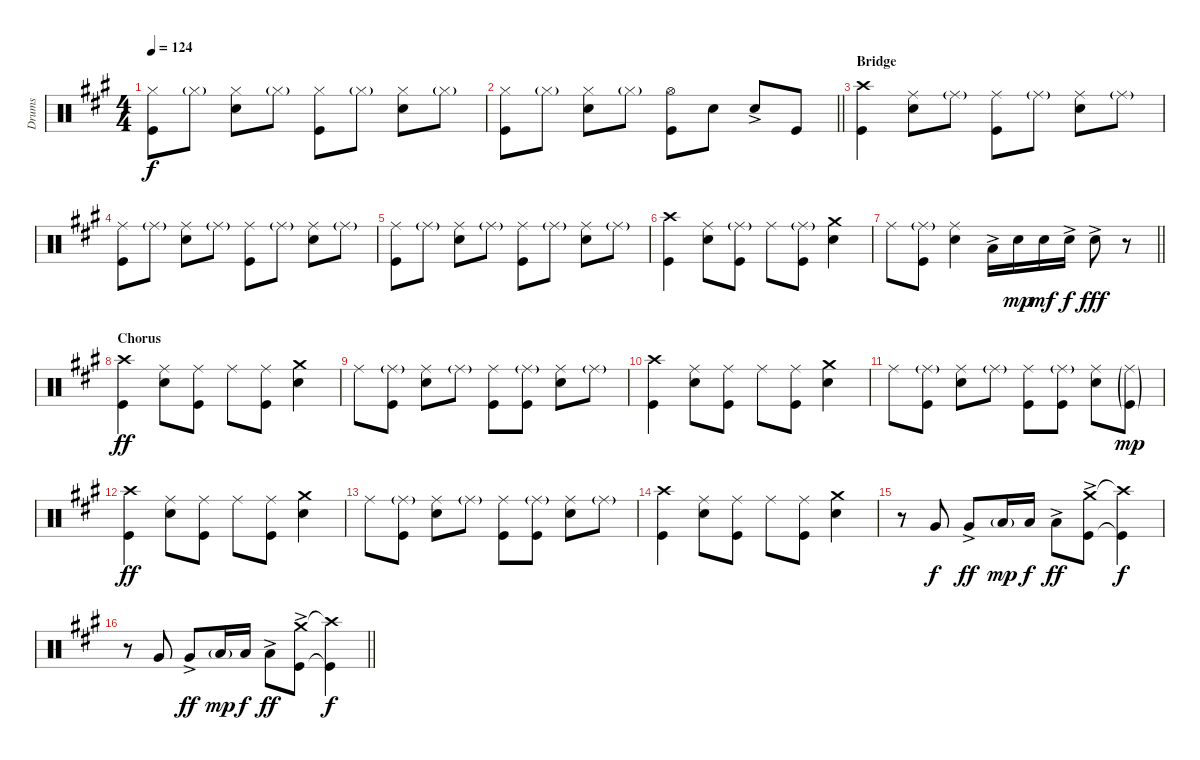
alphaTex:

\track ("Drums" "Drums") {instrument percussion}
\staff {score}
\articulation defaults
\ts (4 4)
\tempo 124
\clef neutral
\ks a
("Kick (hit)" "Hi-Hat (closed)").8{dy f} "Hi-Hat (closed)"{g}.8 ("Snare (hit) 2" "Hi-Hat (closed)").8 "Hi-Hat (closed)"{g}.8 ("Kick (hit)" "Hi-Hat (closed)").8 "Hi-Hat (closed)"{g}.8 ("Snare (hit) 2" "Hi-Hat (closed)").8 "Hi-Hat (closed)"{g}.8 |
\barLineRight lightlight
("Kick (hit)" "Hi-Hat (closed)").8 "Hi-Hat (closed)"{g}.8 ("Snare (hit) 2" "Hi-Hat (closed)").8 "Hi-Hat (closed)"{g}.8 ("Hi-Hat (open)" "Kick (hit)").8 "Snare (hit) 2".8 "Snare (hit) 2"{ac}.8 "Kick (hit)".8 |
\section ("" "Bridge")
("Crash high (hit)" "Kick (hit)").4 ("Ride (middle)" "Snare (hit) 2").8 "Ride (middle)"{g}.8 ("Ride (middle)" "Kick (hit)").8 "Ride (middle)"{g}.8 ("Ride (middle)" "Snare (hit) 2").8 "Ride (middle)"{g}.8 |
("Ride (middle)" "Kick (hit)").8 "Ride (middle)"{g}.8 ("Ride (middle)" "Snare (hit) 2").8 "Ride (middle)"{g}.8 ("Ride (middle)" "Kick (hit)").8 "Ride (middle)"{g}.8 ("Ride (middle)" "Snare (hit) 2").8 "Ride (middle)"{g}.8 |
("Ride (middle)" "Kick (hit)").8 "Ride (middle)"{g}.8 ("Ride (middle)" "Snare (hit) 2").8 "Ride (middle)"{g}.8 ("Ride (middle)" "Kick (hit)").8 "Ride (middle)"{g}.8 ("Ride (middle)" "Snare (hit) 2").8 "Ride (middle)"{g}.8 |
("Kick (hit)" "Crash high (hit)").4 ("Ride (middle)" "Snare (hit) 2").8 ("Ride (middle)"{g} "Kick (hit)").8 "Ride (middle)".8 ("Ride (middle)"{g} "Kick (hit)").8 ("Snare (hit) 2" "Crash medium (hit)").4 |
\barLineRight lightlight "Ride (middle)".8
("Ride (middle)"{g} "Kick (hit)").8 ("Ride (middle)" "Snare (hit) 2").4 "Low Tom (hit)"{ac}.16 "Snare (hit) 2".16{dy mp} "Snare (hit) 2".16{dy mf} "Snare (hit) 2"{ac}.16{dy f} "Snare (hit) 2"{ac}.8{dy fff} r.8 |
\section ("" "Chorus")
("Crash high (hit)" "Kick (hit)").4{dy ff} ("Ride (middle)" "Snare (hit) 2").8 ("Ride (middle)" "Kick (hit)").8 "Ride (middle)".8 ("Ride (middle)" "Kick (hit)").8 ("Crash medium (hit)" "Snare (hit) 2").4 |
"Ride (middle)".8 ("Ride (middle)"{g} "Kick (hit)").8 ("Ride (middle)" "Snare (hit) 2").8 "Ride (middle)"{g}.8 ("Ride (middle)" "Kick (hit)").8 ("Ride (middle)"{g} "Kick (hit)").8 ("Ride (middle)" "Snare (hit) 2").8 "Ride (middle)"{g}.8 |
("Crash high (hit)" "Kick (hit)").4 ("Ride (middle)" "Snare (hit) 2").8 ("Ride (middle)" "Kick (hit)").8 "Ride (middle)".8 ("Ride (middle)" "Kick (hit)").8 ("Crash medium (hit)" "Snare (hit) 2").4 |
"Ride (middle)".8 ("Ride (middle)"{g} "Kick (hit)").8 ("Ride (middle)" "Snare (hit) 2").8 "Ride (middle)"{g}.8 ("Ride (middle)" "Kick (hit)").8 ("Ride (middle)"{g} "Kick (hit)").8 ("Ride (middle)" "Snare (hit) 2").8 ("Ride (middle)"{g} "Kick (hit)"{g}).8{dy mp} |
("Crash high (hit)" "Kick (hit)").4{dy ff} ("Ride (middle)" "Snare (hit) 2").8 ("Ride (middle)" "Kick (hit)").8 "Ride (middle)".8 ("Ride (middle)" "Kick (hit)").8 ("Crash medium (hit)" "Snare (hit) 2").4 |
"Ride (middle)".8 ("Ride (middle)"{g} "Kick (hit)").8 ("Ride (middle)" "Snare (hit) 2").8 "Ride (middle)"{g}.8 ("Ride (middle)" "Kick (hit)").8 ("Ride (middle)"{g} "Kick (hit)").8 ("Ride (middle)" "Snare (hit) 2").8 "Ride (middle)"{g}.8 |
("Crash high (hit)" "Kick (hit)").4 ("Ride (middle)" "Snare (hit) 2").8 ("Ride (middle)" "Kick (hit)").8 "Ride (middle)".8 ("Ride (middle)" "Kick (hit)").8 ("Crash medium (hit)" "Snare (hit) 2").4 |
r.8 "Very Low Tom (hit)".8{dy f} "Very Low Tom (hit)"{ac}.8{dy ff} "Low Floor Tom (hit)"{g}.16{dy mp} "Low Floor Tom (hit)".16{dy f} "Low Floor Tom (hit)"{ac}.8{dy ff} ("Crash medium (hit)"{ac} "Kick (hit)"{ac}).8 ("Crash high (hit)"{t} "Kick (hit)"{t}).4{dy f} |
\barLineRight lightlight
r.8 "Very Low Tom (hit)".8 "Very Low Tom (hit)"{ac}.8{dy ff} "Low Floor Tom (hit)"{g}.16{dy mp} "Low Floor Tom (hit)".16{dy f} "Low Floor Tom (hit)"{ac}.8{dy ff} ("Crash medium (hit)"{ac} "Kick (hit)"{ac}).8 ("Crash high (hit)"{t} "Kick (hit)"{t}).4{dy f}
